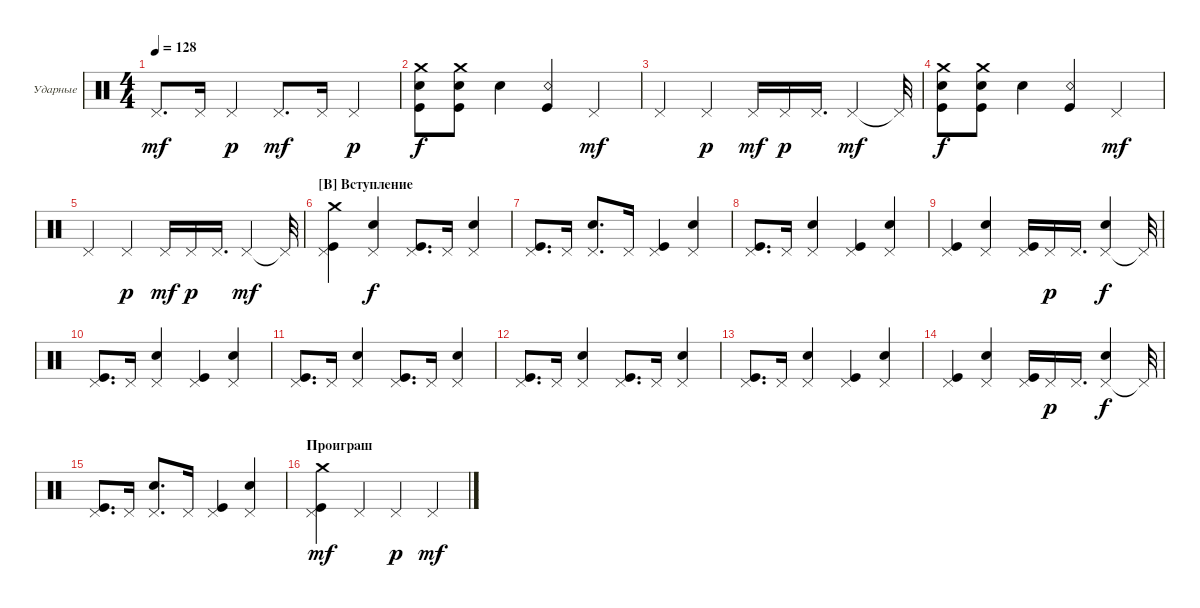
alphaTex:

\defaultSystemsLayout 4
\bracketExtendMode groupsimilarinstruments
\firstSystemTrackNameOrientation horizontal
\otherSystemsTrackNameOrientation horizontal
\track ("Е. Кулаков" "Ударные") {instrument percussion}
\staff {score}
\articulation defaults
\ts (4 4)
\tempo 128
\clef neutral
\ks c "Pedal Hi-Hat (hit)".8{d dy mf} "Pedal Hi-Hat (hit)".16 "Pedal Hi-Hat (hit)".4{dy p} "Pedal Hi-Hat (hit)".8{d dy mf} "Pedal Hi-Hat (hit)".16 "Pedal Hi-Hat (hit)".4{dy p}
|
("Kick (hit)" "Snare (hit) 2" "Crash medium (hit)").8{dy f} ("Kick (hit)" "Snare (hit) 2" "Crash medium (hit)").8 "Snare (hit) 2".4 ("Snare (rim shot)" "Kick (hit)").4 "Pedal Hi-Hat (hit)".4{dy mf} |
"Pedal Hi-Hat (hit)".4 "Pedal Hi-Hat (hit)".4{dy p} "Pedal Hi-Hat (hit)".16{dy mf} "Pedal Hi-Hat (hit)".16{dy p} "Pedal Hi-Hat (hit)".16{d} "Pedal Hi-Hat (hit)".4{dy mf} "Pedal Hi-Hat (hit)"{t}.32 |
("Kick (hit)" "Snare (hit) 2" "Crash medium (hit)").8{dy f} ("Kick (hit)" "Snare (hit) 2" "Crash medium (hit)").8 "Snare (hit) 2".4 ("Snare (rim shot)" "Kick (hit)").4 "Pedal Hi-Hat (hit)".4{dy mf} |
"Pedal Hi-Hat (hit)".4 "Pedal Hi-Hat (hit)".4{dy p} "Pedal Hi-Hat (hit)".16{dy mf} "Pedal Hi-Hat (hit)".16{dy p} "Pedal Hi-Hat (hit)".16{d} "Pedal Hi-Hat (hit)".4{dy mf} "Pedal Hi-Hat (hit)"{t}.32 |
\section ("B" "Вступление")
("Kick (hit)" "Crash medium (hit)" "Pedal Hi-Hat (hit)").4 ("Pedal Hi-Hat (hit)" "Snare (hit) 2").4{dy f} ("Pedal Hi-Hat (hit)" "Kick (hit)").8{d} "Pedal Hi-Hat (hit)".16 ("Pedal Hi-Hat (hit)" "Snare (hit) 2").4 |
("Pedal Hi-Hat (hit)" "Kick (hit)").8{d} "Pedal Hi-Hat (hit)".16 ("Pedal Hi-Hat (hit)" "Snare (hit) 2").8{d} "Pedal Hi-Hat (hit)".16 ("Pedal Hi-Hat (hit)" "Kick (hit)").4 ("Pedal Hi-Hat (hit)" "Snare (hit) 2").4 |
("Pedal Hi-Hat (hit)" "Kick (hit)").8{d} "Pedal Hi-Hat (hit)".16 ("Pedal Hi-Hat (hit)" "Snare (hit) 2").4 ("Pedal Hi-Hat (hit)" "Kick (hit)").4 ("Pedal Hi-Hat (hit)" "Snare (hit) 2").4 |
("Pedal Hi-Hat (hit)" "Kick (hit)").4 ("Pedal Hi-Hat (hit)" "Snare (hit) 2").4 ("Pedal Hi-Hat (hit)" "Kick (hit)").16 "Pedal Hi-Hat (hit)".16{dy p} "Pedal Hi-Hat (hit)".16{d} ("Pedal Hi-Hat (hit)" "Snare (hit) 2").4{dy f} "Pedal Hi-Hat (hit)"{t}.32 |
("Pedal Hi-Hat (hit)" "Kick (hit)").8{d} "Pedal Hi-Hat (hit)".16 ("Pedal Hi-Hat (hit)" "Snare (hit) 2").4 ("Pedal Hi-Hat (hit)" "Kick (hit)").4 ("Pedal Hi-Hat (hit)" "Snare (hit) 2").4 |
("Pedal Hi-Hat (hit)" "Kick (hit)").8{d} "Pedal Hi-Hat (hit)".16 ("Pedal Hi-Hat (hit)" "Snare (hit) 2").4 ("Pedal Hi-Hat (hit)" "Kick (hit)").8{d} "Pedal Hi-Hat (hit)".16 ("Pedal Hi-Hat (hit)" "Snare (hit) 2").4 |
("Pedal Hi-Hat (hit)" "Kick (hit)").8{d} "Pedal Hi-Hat (hit)".16 ("Pedal Hi-Hat (hit)" "Snare (hit) 2").4 ("Pedal Hi-Hat (hit)" "Kick (hit)").8{d} "Pedal Hi-Hat (hit)".16 ("Pedal Hi-Hat (hit)" "Snare (hit) 2").4 |
("Pedal Hi-Hat (hit)" "Kick (hit)").8{d} "Pedal Hi-Hat (hit)".16 ("Pedal Hi-Hat (hit)" "Snare (hit) 2").4 ("Pedal Hi-Hat (hit)" "Kick (hit)").4 ("Pedal Hi-Hat (hit)" "Snare (hit) 2").4 |
("Pedal Hi-Hat (hit)" "Kick (hit)").4 ("Pedal Hi-Hat (hit)" "Snare (hit) 2").4 ("Pedal Hi-Hat (hit)" "Kick (hit)").16 "Pedal Hi-Hat (hit)".16{dy p} "Pedal Hi-Hat (hit)".16{d} ("Pedal Hi-Hat (hit)" "Snare (hit) 2").4{dy f} "Pedal Hi-Hat (hit)"{t}.32 |
("Pedal Hi-Hat (hit)" "Kick (hit)").8{d} "Pedal Hi-Hat (hit)".16 ("Pedal Hi-Hat (hit)" "Snare (hit) 2").8{d} "Pedal Hi-Hat (hit)".16 ("Pedal Hi-Hat (hit)" "Kick (hit)").4 ("Pedal Hi-Hat (hit)" "Snare (hit) 2").4 |
\section ("" "Проиграш")
("Kick (hit)" "Crash medium (hit)" "Pedal Hi-Hat (hit)").4{dy mf} "Pedal Hi-Hat (hit)".4 "Pedal Hi-Hat (hit)".4{dy p} "Pedal Hi-Hat (hit)".4{dy mf}
